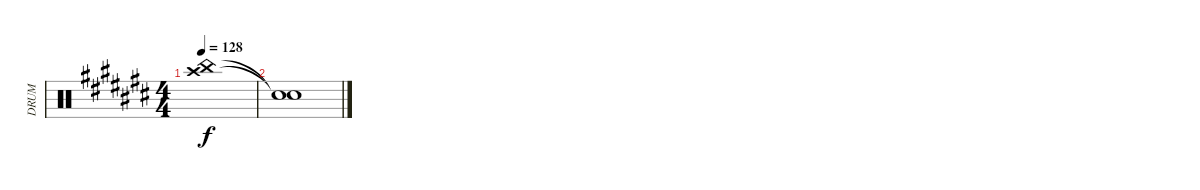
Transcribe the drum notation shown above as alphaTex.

\track ("DRUM" "DRUM") {instrument percussion}
\staff {score}
\articulation defaults
\ts (4 4)
\tempo 128
\clef neutral
\ks c#
("China (hit)" "Crash high (hit)").1{dy f} |
("Snare (hit)"{t} "Snare (hit)"{t}).1
